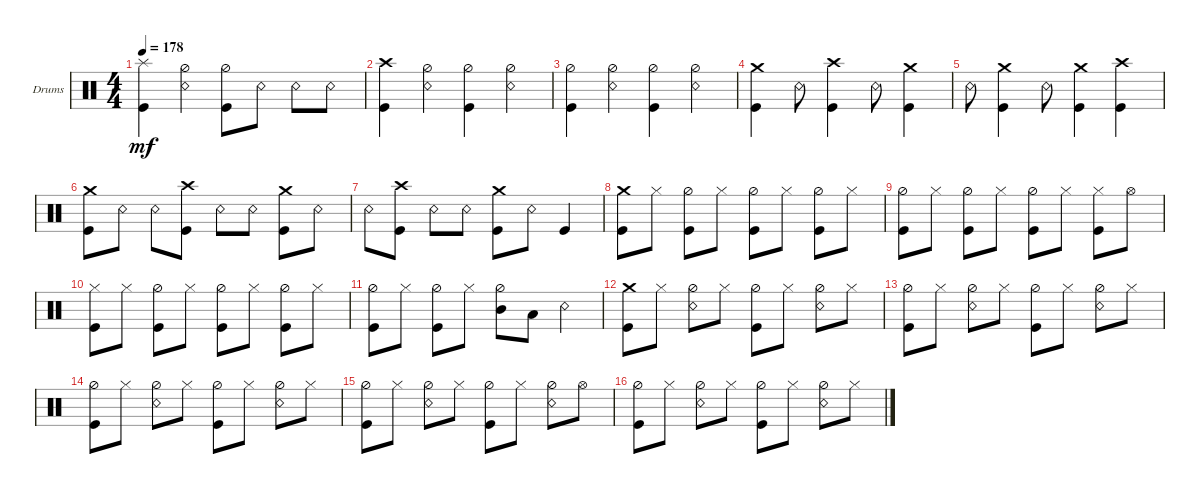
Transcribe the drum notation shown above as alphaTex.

\defaultSystemsLayout 4
\bracketExtendMode groupsimilarinstruments
\firstSystemTrackNameOrientation horizontal
\otherSystemsTrackNameOrientation horizontal
\track ("Drumkit" "Drums") {instrument percussion}
\staff {score}
\articulation defaults
\ts (4 4)
\tempo 178
\clef neutral
\ks c
("Kick (hit)" "Splash (hit)").4{dy mf} ("Hi-Hat (half)" "Snare (rim shot)").4 ("Kick (hit)" "Hi-Hat (half)").8 "Snare (rim shot)".8 "Snare (rim shot)".8 "Snare (rim shot)".8 |
("Kick (hit)" "Crash high (hit)").4 ("Hi-Hat (half)" "Snare (rim shot)").4 ("Kick (hit)" "Hi-Hat (half)").4 ("Hi-Hat (half)" "Snare (rim shot)").4 |
("Kick (hit)" "Hi-Hat (half)").4 ("Hi-Hat (half)" "Snare (rim shot)").4 ("Kick (hit)" "Hi-Hat (half)").4 ("Hi-Hat (half)" "Snare (rim shot)").4 |
("Kick (hit)" "Crash medium (hit)").4 "Snare (rim shot)".8 ("Kick (hit)" "Crash high (hit)").4 "Snare (rim shot)".8 ("Kick (hit)" "Crash medium (hit)").4 |
"Snare (rim shot)".8 ("Kick (hit)" "Crash medium (hit)").4 "Snare (rim shot)".8 ("Kick (hit)" "Crash medium (hit)").4 ("Kick (hit)" "Crash high (hit)").4 |
("Kick (hit)" "Crash medium (hit)").8 "Snare (rim shot)".8 "Snare (rim shot)".8 ("Kick (hit)" "Crash high (hit)").8 "Snare (rim shot)".8 "Snare (rim shot)".8 ("Kick (hit)" "Crash medium (hit)").8 "Snare (rim shot)".8 |
"Snare (rim shot)".8 ("Kick (hit)" "Crash high (hit)").8 "Snare (rim shot)".8 "Snare (rim shot)".8 ("Kick (hit)" "Crash medium (hit)").8 "Snare (rim shot)".8 "Kick (hit)".4 |
("Kick (hit)" "Crash medium (hit)").8 "Hi-Hat (closed)".8 ("Kick (hit)" "Hi-Hat (half)").8 "Hi-Hat (closed)".8 ("Kick (hit)" "Hi-Hat (half)").8 "Hi-Hat (closed)".8 ("Kick (hit)" "Hi-Hat (half)").8 "Hi-Hat (closed)".8 |
("Kick (hit)" "Hi-Hat (half)").8 "Hi-Hat (closed)".8 ("Kick (hit)" "Hi-Hat (half)").8 "Hi-Hat (closed)".8 ("Kick (hit)" "Hi-Hat (half)").8 "Hi-Hat (closed)".8 ("Kick (hit)" "Hi-Hat (closed)").8 "Hi-Hat (open)".8 |
("Kick (hit)" "Hi-Hat (closed)").8 "Hi-Hat (closed)".8 ("Kick (hit)" "Hi-Hat (half)").8 "Hi-Hat (closed)".8 ("Kick (hit)" "Hi-Hat (half)").8 "Hi-Hat (closed)".8 ("Kick (hit)" "Hi-Hat (half)").8 "Hi-Hat (closed)".8 |
("Kick (hit)" "Hi-Hat (half)").8 "Hi-Hat (closed)".8 ("Kick (hit)" "Hi-Hat (half)").8 "Hi-Hat (closed)".8 ("Mid Tom (hit)" "Hi-Hat (half)").8 "Low Tom (hit)".8 "Snare (rim shot)".4 |
("Kick (hit)" "Crash medium (hit)").8 "Hi-Hat (closed)".8 ("Hi-Hat (half)" "Snare (rim shot)").8 "Hi-Hat (closed)".8 ("Kick (hit)" "Hi-Hat (half)").8 "Hi-Hat (closed)".8 ("Hi-Hat (half)" "Snare (rim shot)").8 "Hi-Hat (closed)".8 |
("Kick (hit)" "Hi-Hat (half)").8 "Hi-Hat (closed)".8 ("Hi-Hat (half)" "Snare (rim shot)").8 "Hi-Hat (closed)".8 ("Kick (hit)" "Hi-Hat (half)").8 "Hi-Hat (closed)".8 ("Hi-Hat (half)" "Snare (rim shot)").8 "Hi-Hat (closed)".8 |
("Kick (hit)" "Hi-Hat (half)").8 "Hi-Hat (closed)".8 ("Hi-Hat (half)" "Snare (rim shot)").8 "Hi-Hat (closed)".8 ("Kick (hit)" "Hi-Hat (half)").8 "Hi-Hat (closed)".8 ("Hi-Hat (half)" "Snare (rim shot)").8 "Hi-Hat (closed)".8 |
("Kick (hit)" "Hi-Hat (half)").8 "Hi-Hat (closed)".8 ("Hi-Hat (half)" "Snare (rim shot)").8 "Hi-Hat (closed)".8 ("Kick (hit)" "Hi-Hat (half)").8 "Hi-Hat (closed)".8 ("Hi-Hat (half)" "Snare (rim shot)").8 "Hi-Hat (open)".8 |
("Kick (hit)" "Hi-Hat (half)").8 "Hi-Hat (closed)".8 ("Hi-Hat (half)" "Snare (rim shot)").8 "Hi-Hat (closed)".8 ("Kick (hit)" "Hi-Hat (half)").8 "Hi-Hat (closed)".8 ("Hi-Hat (half)" "Snare (rim shot)").8 "Hi-Hat (closed)".8
